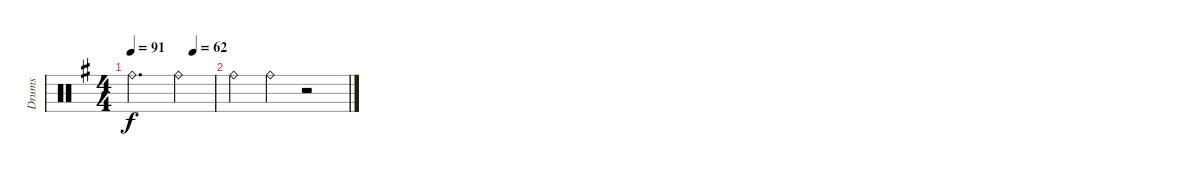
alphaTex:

\track ("Drums" "Drums") {instrument percussion}
\staff {score}
\articulation defaults
\ts (4 4)
\tempo 91
\tempo (62 0.75)
\clef neutral
\ks eminor "Ride (bell)".2{d dy f} "Ride (bell)".4{volume 6}
|
"Ride (bell)".4 "Ride (bell)".4 r.2
